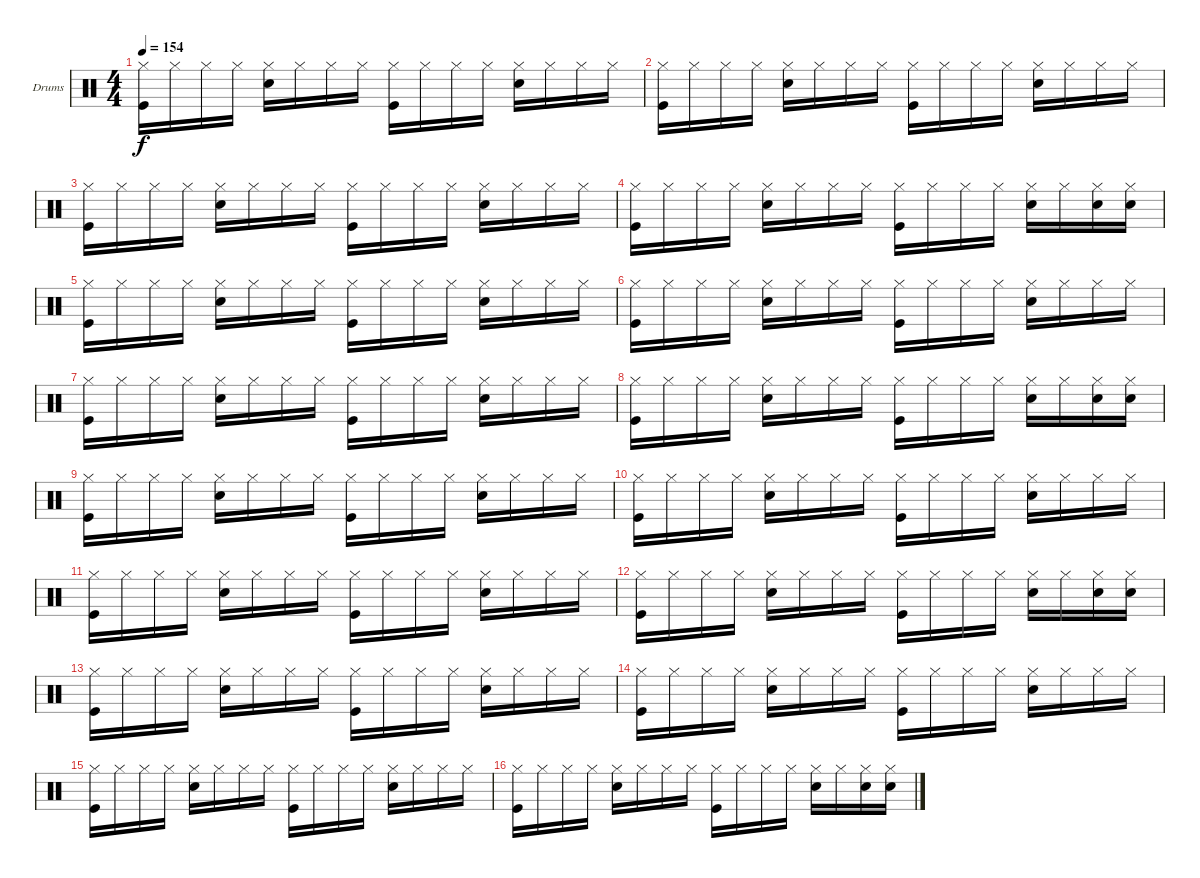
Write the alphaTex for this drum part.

\bracketExtendMode groupsimilarinstruments
\firstSystemTrackNameOrientation horizontal
\otherSystemsTrackNameOrientation horizontal
\track ("Drums" "Drums") {instrument percussion}
\staff {score}
\articulation defaults
\ts (4 4)
\tempo 154
\clef neutral
\ks c
("Kick (hit)" "Hi-Hat (closed)").16{dy f} "Hi-Hat (closed)".16 "Hi-Hat (closed)".16 "Hi-Hat (closed)".16 ("Snare (hit) 2" "Hi-Hat (closed)").16 "Hi-Hat (closed)".16 "Hi-Hat (closed)".16 "Hi-Hat (closed)".16 ("Kick (hit)" "Hi-Hat (closed)").16 "Hi-Hat (closed)".16 "Hi-Hat (closed)".16 "Hi-Hat (closed)".16 ("Snare (hit) 2" "Hi-Hat (closed)").16 "Hi-Hat (closed)".16 "Hi-Hat (closed)".16 "Hi-Hat (closed)".16 |
("Kick (hit)" "Hi-Hat (closed)").16 "Hi-Hat (closed)".16 "Hi-Hat (closed)".16 "Hi-Hat (closed)".16 ("Snare (hit) 2" "Hi-Hat (closed)").16 "Hi-Hat (closed)".16 "Hi-Hat (closed)".16 "Hi-Hat (closed)".16 ("Kick (hit)" "Hi-Hat (closed)").16 "Hi-Hat (closed)".16 "Hi-Hat (closed)".16 "Hi-Hat (closed)".16 ("Snare (hit) 2" "Hi-Hat (closed)").16 "Hi-Hat (closed)".16 "Hi-Hat (closed)".16 "Hi-Hat (closed)".16 |
("Kick (hit)" "Hi-Hat (closed)").16 "Hi-Hat (closed)".16 "Hi-Hat (closed)".16 "Hi-Hat (closed)".16 ("Snare (hit) 2" "Hi-Hat (closed)").16 "Hi-Hat (closed)".16 "Hi-Hat (closed)".16 "Hi-Hat (closed)".16 ("Kick (hit)" "Hi-Hat (closed)").16 "Hi-Hat (closed)".16 "Hi-Hat (closed)".16 "Hi-Hat (closed)".16 ("Snare (hit) 2" "Hi-Hat (closed)").16 "Hi-Hat (closed)".16 "Hi-Hat (closed)".16 "Hi-Hat (closed)".16 |
("Kick (hit)" "Hi-Hat (closed)").16 "Hi-Hat (closed)".16 "Hi-Hat (closed)".16 "Hi-Hat (closed)".16 ("Snare (hit) 2" "Hi-Hat (closed)").16 "Hi-Hat (closed)".16 "Hi-Hat (closed)".16 "Hi-Hat (closed)".16 ("Kick (hit)" "Hi-Hat (closed)").16 "Hi-Hat (closed)".16 "Hi-Hat (closed)".16 "Hi-Hat (closed)".16 ("Snare (hit) 2" "Hi-Hat (closed)").16 "Hi-Hat (closed)".16 ("Snare (hit) 2" "Hi-Hat (closed)").16 ("Snare (hit) 2" "Hi-Hat (closed)").16 |
("Kick (hit)" "Hi-Hat (closed)").16 "Hi-Hat (closed)".16 "Hi-Hat (closed)".16 "Hi-Hat (closed)".16 ("Snare (hit) 2" "Hi-Hat (closed)").16 "Hi-Hat (closed)".16 "Hi-Hat (closed)".16 "Hi-Hat (closed)".16 ("Kick (hit)" "Hi-Hat (closed)").16 "Hi-Hat (closed)".16 "Hi-Hat (closed)".16 "Hi-Hat (closed)".16 ("Snare (hit) 2" "Hi-Hat (closed)").16 "Hi-Hat (closed)".16 "Hi-Hat (closed)".16 "Hi-Hat (closed)".16 |
("Kick (hit)" "Hi-Hat (closed)").16 "Hi-Hat (closed)".16 "Hi-Hat (closed)".16 "Hi-Hat (closed)".16 ("Snare (hit) 2" "Hi-Hat (closed)").16 "Hi-Hat (closed)".16 "Hi-Hat (closed)".16 "Hi-Hat (closed)".16 ("Kick (hit)" "Hi-Hat (closed)").16 "Hi-Hat (closed)".16 "Hi-Hat (closed)".16 "Hi-Hat (closed)".16 ("Snare (hit) 2" "Hi-Hat (closed)").16 "Hi-Hat (closed)".16 "Hi-Hat (closed)".16 "Hi-Hat (closed)".16 |
("Kick (hit)" "Hi-Hat (closed)").16 "Hi-Hat (closed)".16 "Hi-Hat (closed)".16 "Hi-Hat (closed)".16 ("Snare (hit) 2" "Hi-Hat (closed)").16 "Hi-Hat (closed)".16 "Hi-Hat (closed)".16 "Hi-Hat (closed)".16 ("Kick (hit)" "Hi-Hat (closed)").16 "Hi-Hat (closed)".16 "Hi-Hat (closed)".16 "Hi-Hat (closed)".16 ("Snare (hit) 2" "Hi-Hat (closed)").16 "Hi-Hat (closed)".16 "Hi-Hat (closed)".16 "Hi-Hat (closed)".16 |
("Kick (hit)" "Hi-Hat (closed)").16 "Hi-Hat (closed)".16 "Hi-Hat (closed)".16 "Hi-Hat (closed)".16 ("Snare (hit) 2" "Hi-Hat (closed)").16 "Hi-Hat (closed)".16 "Hi-Hat (closed)".16 "Hi-Hat (closed)".16 ("Kick (hit)" "Hi-Hat (closed)").16 "Hi-Hat (closed)".16 "Hi-Hat (closed)".16 "Hi-Hat (closed)".16 ("Snare (hit) 2" "Hi-Hat (closed)").16 "Hi-Hat (closed)".16 ("Snare (hit) 2" "Hi-Hat (closed)").16 ("Snare (hit) 2" "Hi-Hat (closed)").16 |
("Kick (hit)" "Hi-Hat (closed)").16 "Hi-Hat (closed)".16 "Hi-Hat (closed)".16 "Hi-Hat (closed)".16 ("Snare (hit) 2" "Hi-Hat (closed)").16 "Hi-Hat (closed)".16 "Hi-Hat (closed)".16 "Hi-Hat (closed)".16 ("Kick (hit)" "Hi-Hat (closed)").16 "Hi-Hat (closed)".16 "Hi-Hat (closed)".16 "Hi-Hat (closed)".16 ("Snare (hit) 2" "Hi-Hat (closed)").16 "Hi-Hat (closed)".16 "Hi-Hat (closed)".16 "Hi-Hat (closed)".16 |
("Kick (hit)" "Hi-Hat (closed)").16 "Hi-Hat (closed)".16 "Hi-Hat (closed)".16 "Hi-Hat (closed)".16 ("Snare (hit) 2" "Hi-Hat (closed)").16 "Hi-Hat (closed)".16 "Hi-Hat (closed)".16 "Hi-Hat (closed)".16 ("Kick (hit)" "Hi-Hat (closed)").16 "Hi-Hat (closed)".16 "Hi-Hat (closed)".16 "Hi-Hat (closed)".16 ("Snare (hit) 2" "Hi-Hat (closed)").16 "Hi-Hat (closed)".16 "Hi-Hat (closed)".16 "Hi-Hat (closed)".16 |
("Kick (hit)" "Hi-Hat (closed)").16 "Hi-Hat (closed)".16 "Hi-Hat (closed)".16 "Hi-Hat (closed)".16 ("Snare (hit) 2" "Hi-Hat (closed)").16 "Hi-Hat (closed)".16 "Hi-Hat (closed)".16 "Hi-Hat (closed)".16 ("Kick (hit)" "Hi-Hat (closed)").16 "Hi-Hat (closed)".16 "Hi-Hat (closed)".16 "Hi-Hat (closed)".16 ("Snare (hit) 2" "Hi-Hat (closed)").16 "Hi-Hat (closed)".16 "Hi-Hat (closed)".16 "Hi-Hat (closed)".16 |
("Kick (hit)" "Hi-Hat (closed)").16 "Hi-Hat (closed)".16 "Hi-Hat (closed)".16 "Hi-Hat (closed)".16 ("Snare (hit) 2" "Hi-Hat (closed)").16 "Hi-Hat (closed)".16 "Hi-Hat (closed)".16 "Hi-Hat (closed)".16 ("Kick (hit)" "Hi-Hat (closed)").16 "Hi-Hat (closed)".16 "Hi-Hat (closed)".16 "Hi-Hat (closed)".16 ("Snare (hit) 2" "Hi-Hat (closed)").16 "Hi-Hat (closed)".16 ("Snare (hit) 2" "Hi-Hat (closed)").16 ("Snare (hit) 2" "Hi-Hat (closed)").16 |
("Kick (hit)" "Hi-Hat (closed)").16 "Hi-Hat (closed)".16 "Hi-Hat (closed)".16 "Hi-Hat (closed)".16 ("Snare (hit) 2" "Hi-Hat (closed)").16 "Hi-Hat (closed)".16 "Hi-Hat (closed)".16 "Hi-Hat (closed)".16 ("Kick (hit)" "Hi-Hat (closed)").16 "Hi-Hat (closed)".16 "Hi-Hat (closed)".16 "Hi-Hat (closed)".16 ("Snare (hit) 2" "Hi-Hat (closed)").16 "Hi-Hat (closed)".16 "Hi-Hat (closed)".16 "Hi-Hat (closed)".16 |
("Kick (hit)" "Hi-Hat (closed)").16 "Hi-Hat (closed)".16 "Hi-Hat (closed)".16 "Hi-Hat (closed)".16 ("Snare (hit) 2" "Hi-Hat (closed)").16 "Hi-Hat (closed)".16 "Hi-Hat (closed)".16 "Hi-Hat (closed)".16 ("Kick (hit)" "Hi-Hat (closed)").16 "Hi-Hat (closed)".16 "Hi-Hat (closed)".16 "Hi-Hat (closed)".16 ("Snare (hit) 2" "Hi-Hat (closed)").16 "Hi-Hat (closed)".16 "Hi-Hat (closed)".16 "Hi-Hat (closed)".16 |
("Kick (hit)" "Hi-Hat (closed)").16 "Hi-Hat (closed)".16 "Hi-Hat (closed)".16 "Hi-Hat (closed)".16 ("Snare (hit) 2" "Hi-Hat (closed)").16 "Hi-Hat (closed)".16 "Hi-Hat (closed)".16 "Hi-Hat (closed)".16 ("Kick (hit)" "Hi-Hat (closed)").16 "Hi-Hat (closed)".16 "Hi-Hat (closed)".16 "Hi-Hat (closed)".16 ("Snare (hit) 2" "Hi-Hat (closed)").16 "Hi-Hat (closed)".16 "Hi-Hat (closed)".16 "Hi-Hat (closed)".16 |
("Kick (hit)" "Hi-Hat (closed)").16 "Hi-Hat (closed)".16 "Hi-Hat (closed)".16 "Hi-Hat (closed)".16 ("Snare (hit) 2" "Hi-Hat (closed)").16 "Hi-Hat (closed)".16 "Hi-Hat (closed)".16 "Hi-Hat (closed)".16 ("Kick (hit)" "Hi-Hat (closed)").16 "Hi-Hat (closed)".16 "Hi-Hat (closed)".16 "Hi-Hat (closed)".16 ("Snare (hit) 2" "Hi-Hat (closed)").16 "Hi-Hat (closed)".16 ("Snare (hit) 2" "Hi-Hat (closed)").16 ("Snare (hit) 2" "Hi-Hat (closed)").16
